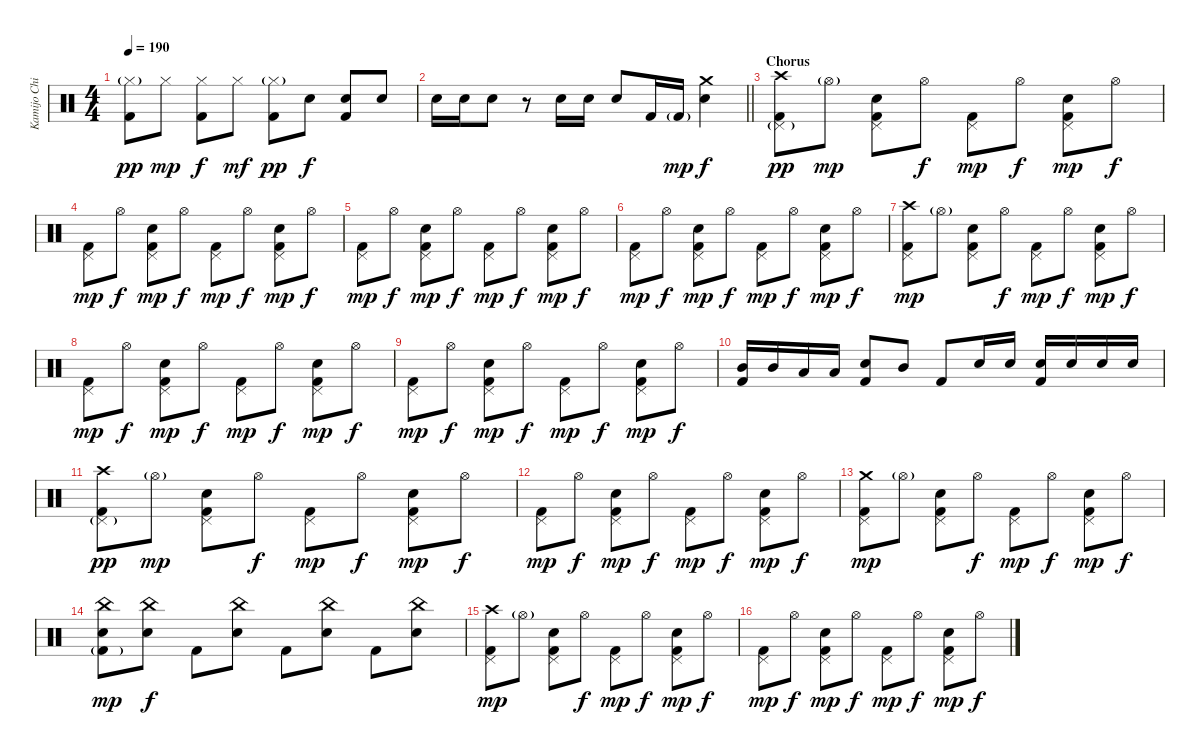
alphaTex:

\track ("Kamijo Chihiro" "Kamijo Chi") {instrument percussion}
\staff {score}
\articulation defaults
\ts (4 4)
\tempo 190
\clef neutral
\ks c
("Hi-Hat (closed)"{g} "Kick (hit) 2").8{dy pp} "Hi-Hat (closed)".8{dy mp} ("Hi-Hat (closed)" "Kick (hit) 2").8{dy f} "Hi-Hat (closed)".8{dy mf} ("Hi-Hat (closed)"{g} "Kick (hit) 2").8{dy pp} "Snare (hit) 2".8{dy f} ("Snare (hit) 2" "Kick (hit) 2").8 "Snare (hit) 2".8 |
\barLineRight lightlight "Snare (hit) 2".16 "Snare (hit) 2".16 "Snare (hit) 2".8
r.8 "Snare (hit) 2".16 "Snare (hit) 2".16 "Snare (hit) 2".8 "Kick (hit) 2".16 "Kick (hit) 2"{g}.16{dy mp} ("Crash medium (hit)" "Snare (hit) 2").4{dy f} |
\section ("" "Chorus")
("Crash high (hit)" "Pedal Hi-Hat (hit)"{g} "Kick (hit) 2").8{dy pp} "Hi-Hat (open)"{g}.8{dy mp} ("Pedal Hi-Hat (hit)" "Snare (hit) 2" "Kick (hit) 2").8 "Hi-Hat (open)".8{dy f} ("Pedal Hi-Hat (hit)" "Kick (hit) 2").8{dy mp} "Hi-Hat (open)".8{dy f} ("Pedal Hi-Hat (hit)" "Snare (hit) 2" "Kick (hit) 2").8{dy mp} "Hi-Hat (open)".8{dy f} |
("Pedal Hi-Hat (hit)" "Kick (hit) 2").8{dy mp} "Hi-Hat (open)".8{dy f} ("Pedal Hi-Hat (hit)" "Snare (hit) 2" "Kick (hit) 2").8{dy mp} "Hi-Hat (open)".8{dy f} ("Pedal Hi-Hat (hit)" "Kick (hit) 2").8{dy mp} "Hi-Hat (open)".8{dy f} ("Pedal Hi-Hat (hit)" "Snare (hit) 2" "Kick (hit) 2").8{dy mp} "Hi-Hat (open)".8{dy f} |
("Pedal Hi-Hat (hit)" "Kick (hit) 2").8{dy mp} "Hi-Hat (open)".8{dy f} ("Pedal Hi-Hat (hit)" "Snare (hit) 2" "Kick (hit) 2").8{dy mp} "Hi-Hat (open)".8{dy f} ("Pedal Hi-Hat (hit)" "Kick (hit) 2").8{dy mp} "Hi-Hat (open)".8{dy f} ("Pedal Hi-Hat (hit)" "Snare (hit) 2" "Kick (hit) 2").8{dy mp} "Hi-Hat (open)".8{dy f} |
("Pedal Hi-Hat (hit)" "Kick (hit) 2").8{dy mp} "Hi-Hat (open)".8{dy f} ("Pedal Hi-Hat (hit)" "Snare (hit) 2" "Kick (hit) 2").8{dy mp} "Hi-Hat (open)".8{dy f} ("Pedal Hi-Hat (hit)" "Kick (hit) 2").8{dy mp} "Hi-Hat (open)".8{dy f} ("Pedal Hi-Hat (hit)" "Snare (hit) 2" "Kick (hit) 2").8{dy mp} "Hi-Hat (open)".8{dy f} |
("Crash high (hit)" "Pedal Hi-Hat (hit)" "Kick (hit) 2").8{dy mp} "Hi-Hat (open)"{g}.8 ("Pedal Hi-Hat (hit)" "Snare (hit) 2" "Kick (hit) 2").8 "Hi-Hat (open)".8{dy f} ("Pedal Hi-Hat (hit)" "Kick (hit) 2").8{dy mp} "Hi-Hat (open)".8{dy f} ("Pedal Hi-Hat (hit)" "Snare (hit) 2" "Kick (hit) 2").8{dy mp} "Hi-Hat (open)".8{dy f} |
("Pedal Hi-Hat (hit)" "Kick (hit) 2").8{dy mp} "Hi-Hat (open)".8{dy f} ("Pedal Hi-Hat (hit)" "Snare (hit) 2" "Kick (hit) 2").8{dy mp} "Hi-Hat (open)".8{dy f} ("Pedal Hi-Hat (hit)" "Kick (hit) 2").8{dy mp} "Hi-Hat (open)".8{dy f} ("Pedal Hi-Hat (hit)" "Snare (hit) 2" "Kick (hit) 2").8{dy mp} "Hi-Hat (open)".8{dy f} |
("Pedal Hi-Hat (hit)" "Kick (hit) 2").8{dy mp} "Hi-Hat (open)".8{dy f} ("Pedal Hi-Hat (hit)" "Snare (hit) 2" "Kick (hit) 2").8{dy mp} "Hi-Hat (open)".8{dy f} ("Pedal Hi-Hat (hit)" "Kick (hit) 2").8{dy mp} "Hi-Hat (open)".8{dy f} ("Pedal Hi-Hat (hit)" "Snare (hit) 2" "Kick (hit) 2").8{dy mp} "Hi-Hat (open)".8{dy f} |
("Mid Tom (hit)" "Kick (hit) 2").16 "Mid Tom (hit)".16 "Low Tom (hit)".16 "Low Tom (hit)".16 ("Snare (hit) 2" "Kick (hit) 2").8 "Mid Tom (hit)".8 "Kick (hit) 2".8 "Snare (hit) 2".16 "Snare (hit) 2".16 ("Snare (hit) 2" "Kick (hit) 2").16 "Snare (hit) 2".16 "Snare (hit) 2".16 "Snare (hit) 2".16 |
("Crash high (hit)" "Pedal Hi-Hat (hit)"{g} "Kick (hit) 2").8{dy pp} "Hi-Hat (open)"{g}.8{dy mp} ("Pedal Hi-Hat (hit)" "Snare (hit) 2" "Kick (hit) 2").8 "Hi-Hat (open)".8{dy f} ("Pedal Hi-Hat (hit)" "Kick (hit) 2").8{dy mp} "Hi-Hat (open)".8{dy f} ("Pedal Hi-Hat (hit)" "Snare (hit) 2" "Kick (hit) 2").8{dy mp} "Hi-Hat (open)".8{dy f} |
("Pedal Hi-Hat (hit)" "Kick (hit) 2").8{dy mp} "Hi-Hat (open)".8{dy f} ("Pedal Hi-Hat (hit)" "Snare (hit) 2" "Kick (hit) 2").8{dy mp} "Hi-Hat (open)".8{dy f} ("Pedal Hi-Hat (hit)" "Kick (hit) 2").8{dy mp} "Hi-Hat (open)".8{dy f} ("Pedal Hi-Hat (hit)" "Snare (hit) 2" "Kick (hit) 2").8{dy mp} "Hi-Hat (open)".8{dy f} |
("Crash medium (hit)" "Pedal Hi-Hat (hit)" "Kick (hit) 2").8{dy mp} "Hi-Hat (open)"{g}.8 ("Pedal Hi-Hat (hit)" "Snare (hit) 2" "Kick (hit) 2").8 "Hi-Hat (open)".8{dy f} ("Pedal Hi-Hat (hit)" "Kick (hit) 2").8{dy mp} "Hi-Hat (open)".8{dy f} ("Pedal Hi-Hat (hit)" "Snare (hit) 2" "Kick (hit) 2").8{dy mp} "Hi-Hat (open)".8{dy f} |
("China (hit)" "Snare (hit) 2" "Kick (hit) 2"{g}).8{dy mp} ("China (hit)" "Snare (hit) 2").8{dy f} "Kick (hit) 2".8 ("China (hit)" "Snare (hit) 2").8 "Kick (hit) 2".8 ("China (hit)" "Snare (hit) 2").8 "Kick (hit) 2".8 ("China (hit)" "Snare (hit) 2").8 |
("Crash high (hit)" "Pedal Hi-Hat (hit)" "Kick (hit) 2").8{dy mp} "Hi-Hat (open)"{g}.8 ("Pedal Hi-Hat (hit)" "Snare (hit) 2" "Kick (hit) 2").8 "Hi-Hat (open)".8{dy f} ("Pedal Hi-Hat (hit)" "Kick (hit) 2").8{dy mp} "Hi-Hat (open)".8{dy f} ("Pedal Hi-Hat (hit)" "Snare (hit) 2" "Kick (hit) 2").8{dy mp} "Hi-Hat (open)".8{dy f} |
("Pedal Hi-Hat (hit)" "Kick (hit) 2").8{dy mp} "Hi-Hat (open)".8{dy f} ("Pedal Hi-Hat (hit)" "Snare (hit) 2" "Kick (hit) 2").8{dy mp} "Hi-Hat (open)".8{dy f} ("Pedal Hi-Hat (hit)" "Kick (hit) 2").8{dy mp} "Hi-Hat (open)".8{dy f} ("Pedal Hi-Hat (hit)" "Snare (hit) 2" "Kick (hit) 2").8{dy mp} "Hi-Hat (open)".8{dy f}
